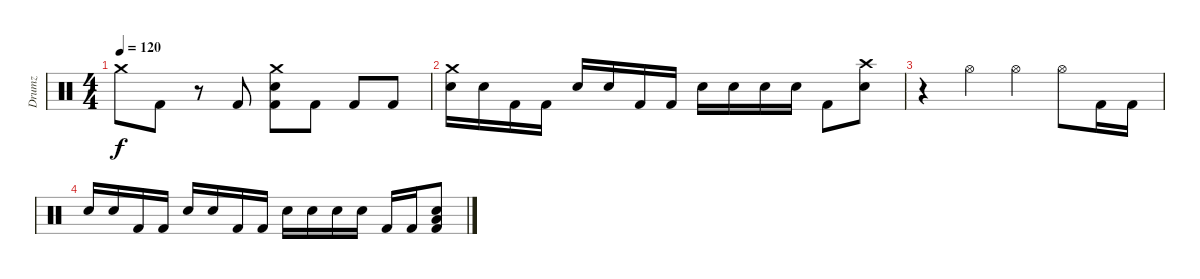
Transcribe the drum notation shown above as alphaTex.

\track ("Drumz" "Drumz") {instrument percussion}
\staff {score}
\articulation defaults
\ts (4 4)
\tempo 120
\clef neutral
\ks c "Crash medium (hit)".8{dy f} "Kick (hit) 2".8
r.8 "Kick (hit) 2".8 ("Kick (hit) 2" "Crash medium (hit)" "Electric Snare (hit)").8 "Kick (hit) 2".8 "Kick (hit) 2".8 "Kick (hit) 2".8 |
("Electric Snare (hit)" "Crash medium (hit)").16 "Electric Snare (hit)".16 "Kick (hit) 2".16 "Kick (hit) 2".16 "Electric Snare (hit)".16 "Electric Snare (hit)".16 "Kick (hit) 2".16 "Kick (hit) 2".16 "Electric Snare (hit)".16 "Electric Snare (hit)".16 "Electric Snare (hit)".16 "Electric Snare (hit)".16 "Kick (hit) 2".8 ("Electric Snare (hit)" "Crash high (hit)").8 |
r.4 "Hi-Hat (open)".4 "Hi-Hat (open)".4 "Hi-Hat (open)".8 "Kick (hit) 2".16 "Kick (hit) 2".16 |
"Electric Snare (hit)".16 "Electric Snare (hit)".16 "Kick (hit) 2".16 "Kick (hit) 2".16 "Electric Snare (hit)".16 "Electric Snare (hit)".16 "Kick (hit) 2".16 "Kick (hit) 2".16 "Electric Snare (hit)".16 "Electric Snare (hit)".16 "Electric Snare (hit)".16 "Electric Snare (hit)".16 "Kick (hit) 2".16 "Kick (hit) 2".16 ("Kick (hit) 2" "Electric Snare (hit)" "Low Floor Tom (hit)").8
